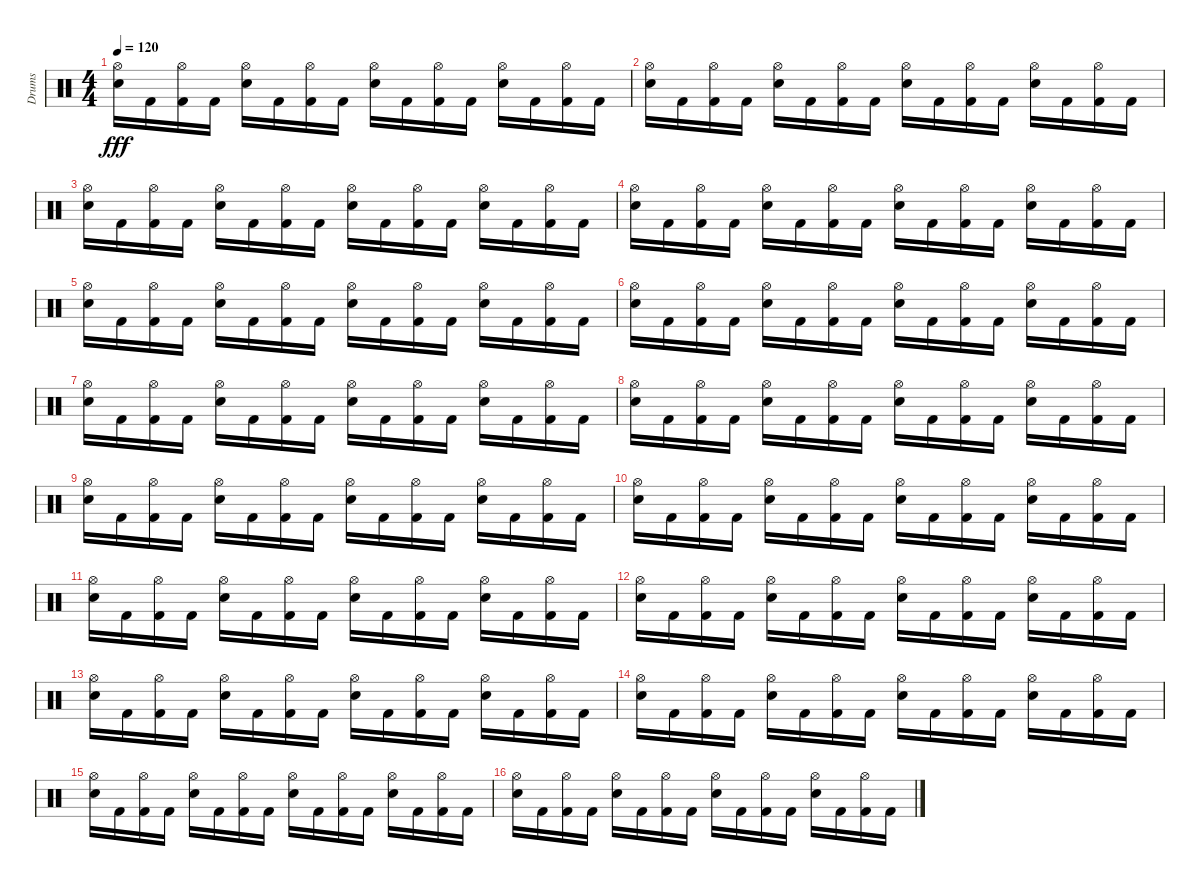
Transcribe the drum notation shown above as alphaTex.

\track ("Drums" "Drums") {instrument percussion}
\staff {score}
\articulation defaults
\ts (4 4)
\tempo 120
\clef neutral
\ks c
("Hi-Hat (open)" "Electric Snare (hit)").16{dy fff} "Kick (hit) 2".16 ("Hi-Hat (open)" "Kick (hit) 2").16 "Kick (hit) 2".16 ("Hi-Hat (open)" "Electric Snare (hit)").16 "Kick (hit) 2".16 ("Hi-Hat (open)" "Kick (hit) 2").16 "Kick (hit) 2".16 ("Hi-Hat (open)" "Electric Snare (hit)").16 "Kick (hit) 2".16 ("Hi-Hat (open)" "Kick (hit) 2").16 "Kick (hit) 2".16 ("Hi-Hat (open)" "Electric Snare (hit)").16 "Kick (hit) 2".16 ("Hi-Hat (open)" "Kick (hit) 2").16 "Kick (hit) 2".16 |
("Hi-Hat (open)" "Electric Snare (hit)").16 "Kick (hit) 2".16 ("Hi-Hat (open)" "Kick (hit) 2").16 "Kick (hit) 2".16 ("Hi-Hat (open)" "Electric Snare (hit)").16 "Kick (hit) 2".16 ("Hi-Hat (open)" "Kick (hit) 2").16 "Kick (hit) 2".16 ("Hi-Hat (open)" "Electric Snare (hit)").16 "Kick (hit) 2".16 ("Hi-Hat (open)" "Kick (hit) 2").16 "Kick (hit) 2".16 ("Hi-Hat (open)" "Electric Snare (hit)").16 "Kick (hit) 2".16 ("Hi-Hat (open)" "Kick (hit) 2").16 "Kick (hit) 2".16 |
("Hi-Hat (open)" "Electric Snare (hit)").16 "Kick (hit) 2".16 ("Hi-Hat (open)" "Kick (hit) 2").16 "Kick (hit) 2".16 ("Hi-Hat (open)" "Electric Snare (hit)").16 "Kick (hit) 2".16 ("Hi-Hat (open)" "Kick (hit) 2").16 "Kick (hit) 2".16 ("Hi-Hat (open)" "Electric Snare (hit)").16 "Kick (hit) 2".16 ("Hi-Hat (open)" "Kick (hit) 2").16 "Kick (hit) 2".16 ("Hi-Hat (open)" "Electric Snare (hit)").16 "Kick (hit) 2".16 ("Hi-Hat (open)" "Kick (hit) 2").16 "Kick (hit) 2".16 |
("Hi-Hat (open)" "Electric Snare (hit)").16 "Kick (hit) 2".16 ("Hi-Hat (open)" "Kick (hit) 2").16 "Kick (hit) 2".16 ("Hi-Hat (open)" "Electric Snare (hit)").16 "Kick (hit) 2".16 ("Hi-Hat (open)" "Kick (hit) 2").16 "Kick (hit) 2".16 ("Hi-Hat (open)" "Electric Snare (hit)").16 "Kick (hit) 2".16 ("Hi-Hat (open)" "Kick (hit) 2").16 "Kick (hit) 2".16 ("Hi-Hat (open)" "Electric Snare (hit)").16 "Kick (hit) 2".16 ("Hi-Hat (open)" "Kick (hit) 2").16 "Kick (hit) 2".16 |
("Hi-Hat (open)" "Electric Snare (hit)").16 "Kick (hit) 2".16 ("Hi-Hat (open)" "Kick (hit) 2").16 "Kick (hit) 2".16 ("Hi-Hat (open)" "Electric Snare (hit)").16 "Kick (hit) 2".16 ("Hi-Hat (open)" "Kick (hit) 2").16 "Kick (hit) 2".16 ("Hi-Hat (open)" "Electric Snare (hit)").16 "Kick (hit) 2".16 ("Hi-Hat (open)" "Kick (hit) 2").16 "Kick (hit) 2".16 ("Hi-Hat (open)" "Electric Snare (hit)").16 "Kick (hit) 2".16 ("Hi-Hat (open)" "Kick (hit) 2").16 "Kick (hit) 2".16 |
("Hi-Hat (open)" "Electric Snare (hit)").16 "Kick (hit) 2".16 ("Hi-Hat (open)" "Kick (hit) 2").16 "Kick (hit) 2".16 ("Hi-Hat (open)" "Electric Snare (hit)").16 "Kick (hit) 2".16 ("Hi-Hat (open)" "Kick (hit) 2").16 "Kick (hit) 2".16 ("Hi-Hat (open)" "Electric Snare (hit)").16 "Kick (hit) 2".16 ("Hi-Hat (open)" "Kick (hit) 2").16 "Kick (hit) 2".16 ("Hi-Hat (open)" "Electric Snare (hit)").16 "Kick (hit) 2".16 ("Hi-Hat (open)" "Kick (hit) 2").16 "Kick (hit) 2".16 |
("Hi-Hat (open)" "Electric Snare (hit)").16 "Kick (hit) 2".16 ("Hi-Hat (open)" "Kick (hit) 2").16 "Kick (hit) 2".16 ("Hi-Hat (open)" "Electric Snare (hit)").16 "Kick (hit) 2".16 ("Hi-Hat (open)" "Kick (hit) 2").16 "Kick (hit) 2".16 ("Hi-Hat (open)" "Electric Snare (hit)").16 "Kick (hit) 2".16 ("Hi-Hat (open)" "Kick (hit) 2").16 "Kick (hit) 2".16 ("Hi-Hat (open)" "Electric Snare (hit)").16 "Kick (hit) 2".16 ("Hi-Hat (open)" "Kick (hit) 2").16 "Kick (hit) 2".16 |
("Hi-Hat (open)" "Electric Snare (hit)").16 "Kick (hit) 2".16 ("Hi-Hat (open)" "Kick (hit) 2").16 "Kick (hit) 2".16 ("Hi-Hat (open)" "Electric Snare (hit)").16 "Kick (hit) 2".16 ("Hi-Hat (open)" "Kick (hit) 2").16 "Kick (hit) 2".16 ("Hi-Hat (open)" "Electric Snare (hit)").16 "Kick (hit) 2".16 ("Hi-Hat (open)" "Kick (hit) 2").16 "Kick (hit) 2".16 ("Hi-Hat (open)" "Electric Snare (hit)").16 "Kick (hit) 2".16 ("Hi-Hat (open)" "Kick (hit) 2").16 "Kick (hit) 2".16 |
("Hi-Hat (open)" "Electric Snare (hit)").16 "Kick (hit) 2".16 ("Hi-Hat (open)" "Kick (hit) 2").16 "Kick (hit) 2".16 ("Hi-Hat (open)" "Electric Snare (hit)").16 "Kick (hit) 2".16 ("Hi-Hat (open)" "Kick (hit) 2").16 "Kick (hit) 2".16 ("Hi-Hat (open)" "Electric Snare (hit)").16 "Kick (hit) 2".16 ("Hi-Hat (open)" "Kick (hit) 2").16 "Kick (hit) 2".16 ("Hi-Hat (open)" "Electric Snare (hit)").16 "Kick (hit) 2".16 ("Hi-Hat (open)" "Kick (hit) 2").16 "Kick (hit) 2".16 |
("Hi-Hat (open)" "Electric Snare (hit)").16 "Kick (hit) 2".16 ("Hi-Hat (open)" "Kick (hit) 2").16 "Kick (hit) 2".16 ("Hi-Hat (open)" "Electric Snare (hit)").16 "Kick (hit) 2".16 ("Hi-Hat (open)" "Kick (hit) 2").16 "Kick (hit) 2".16 ("Hi-Hat (open)" "Electric Snare (hit)").16 "Kick (hit) 2".16 ("Hi-Hat (open)" "Kick (hit) 2").16 "Kick (hit) 2".16 ("Hi-Hat (open)" "Electric Snare (hit)").16 "Kick (hit) 2".16 ("Hi-Hat (open)" "Kick (hit) 2").16 "Kick (hit) 2".16 |
("Hi-Hat (open)" "Electric Snare (hit)").16 "Kick (hit) 2".16 ("Hi-Hat (open)" "Kick (hit) 2").16 "Kick (hit) 2".16 ("Hi-Hat (open)" "Electric Snare (hit)").16 "Kick (hit) 2".16 ("Hi-Hat (open)" "Kick (hit) 2").16 "Kick (hit) 2".16 ("Hi-Hat (open)" "Electric Snare (hit)").16 "Kick (hit) 2".16 ("Hi-Hat (open)" "Kick (hit) 2").16 "Kick (hit) 2".16 ("Hi-Hat (open)" "Electric Snare (hit)").16 "Kick (hit) 2".16 ("Hi-Hat (open)" "Kick (hit) 2").16 "Kick (hit) 2".16 |
("Hi-Hat (open)" "Electric Snare (hit)").16 "Kick (hit) 2".16 ("Hi-Hat (open)" "Kick (hit) 2").16 "Kick (hit) 2".16 ("Hi-Hat (open)" "Electric Snare (hit)").16 "Kick (hit) 2".16 ("Hi-Hat (open)" "Kick (hit) 2").16 "Kick (hit) 2".16 ("Hi-Hat (open)" "Electric Snare (hit)").16 "Kick (hit) 2".16 ("Hi-Hat (open)" "Kick (hit) 2").16 "Kick (hit) 2".16 ("Hi-Hat (open)" "Electric Snare (hit)").16 "Kick (hit) 2".16 ("Hi-Hat (open)" "Kick (hit) 2").16 "Kick (hit) 2".16 |
("Hi-Hat (open)" "Electric Snare (hit)").16 "Kick (hit) 2".16 ("Hi-Hat (open)" "Kick (hit) 2").16 "Kick (hit) 2".16 ("Hi-Hat (open)" "Electric Snare (hit)").16 "Kick (hit) 2".16 ("Hi-Hat (open)" "Kick (hit) 2").16 "Kick (hit) 2".16 ("Hi-Hat (open)" "Electric Snare (hit)").16 "Kick (hit) 2".16 ("Hi-Hat (open)" "Kick (hit) 2").16 "Kick (hit) 2".16 ("Hi-Hat (open)" "Electric Snare (hit)").16 "Kick (hit) 2".16 ("Hi-Hat (open)" "Kick (hit) 2").16 "Kick (hit) 2".16 |
("Hi-Hat (open)" "Electric Snare (hit)").16 "Kick (hit) 2".16 ("Hi-Hat (open)" "Kick (hit) 2").16 "Kick (hit) 2".16 ("Hi-Hat (open)" "Electric Snare (hit)").16 "Kick (hit) 2".16 ("Hi-Hat (open)" "Kick (hit) 2").16 "Kick (hit) 2".16 ("Hi-Hat (open)" "Electric Snare (hit)").16 "Kick (hit) 2".16 ("Hi-Hat (open)" "Kick (hit) 2").16 "Kick (hit) 2".16 ("Hi-Hat (open)" "Electric Snare (hit)").16 "Kick (hit) 2".16 ("Hi-Hat (open)" "Kick (hit) 2").16 "Kick (hit) 2".16 |
("Hi-Hat (open)" "Electric Snare (hit)").16 "Kick (hit) 2".16 ("Hi-Hat (open)" "Kick (hit) 2").16 "Kick (hit) 2".16 ("Hi-Hat (open)" "Electric Snare (hit)").16 "Kick (hit) 2".16 ("Hi-Hat (open)" "Kick (hit) 2").16 "Kick (hit) 2".16 ("Hi-Hat (open)" "Electric Snare (hit)").16 "Kick (hit) 2".16 ("Hi-Hat (open)" "Kick (hit) 2").16 "Kick (hit) 2".16 ("Hi-Hat (open)" "Electric Snare (hit)").16 "Kick (hit) 2".16 ("Hi-Hat (open)" "Kick (hit) 2").16 "Kick (hit) 2".16 |
("Hi-Hat (open)" "Electric Snare (hit)").16 "Kick (hit) 2".16 ("Hi-Hat (open)" "Kick (hit) 2").16 "Kick (hit) 2".16 ("Hi-Hat (open)" "Electric Snare (hit)").16 "Kick (hit) 2".16 ("Hi-Hat (open)" "Kick (hit) 2").16 "Kick (hit) 2".16 ("Hi-Hat (open)" "Electric Snare (hit)").16 "Kick (hit) 2".16 ("Hi-Hat (open)" "Kick (hit) 2").16 "Kick (hit) 2".16 ("Hi-Hat (open)" "Electric Snare (hit)").16 "Kick (hit) 2".16 ("Hi-Hat (open)" "Kick (hit) 2").16 "Kick (hit) 2".16
